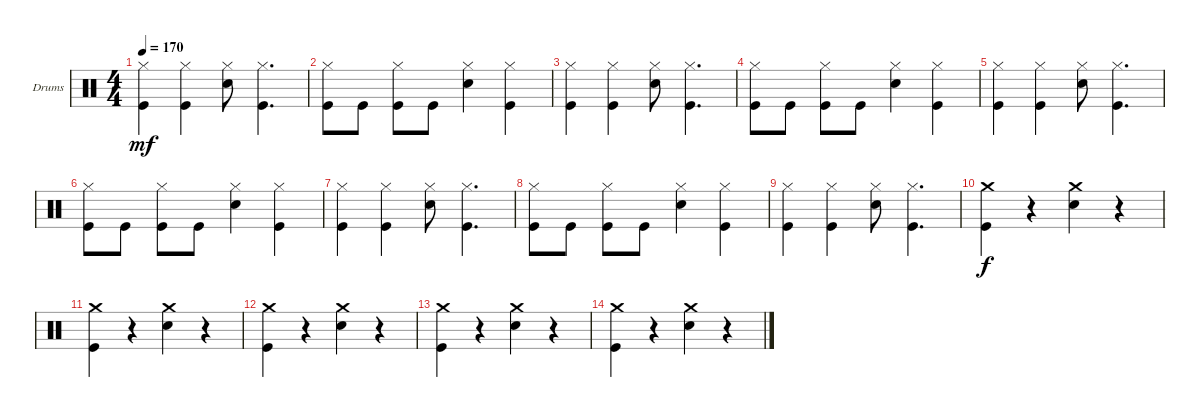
\defaultSystemsLayout 4
\bracketExtendMode groupsimilarinstruments
\firstSystemTrackNameOrientation horizontal
\otherSystemsTrackNameOrientation horizontal
\track ("Drumkit" "Drums") {instrument percussion}
\staff {score}
\articulation defaults
\ts (4 4)
\tempo 170
\clef neutral
\scale
0.333333
\ks c
("Kick (hit)" "Hi-Hat (closed)").4{dy mf} ("Kick (hit)" "Hi-Hat (closed)").4 ("Snare (hit) 2" "Hi-Hat (closed)").8 ("Kick (hit)" "Hi-Hat (closed)").4{d} |
\scale
0.333333 ("Kick (hit)" "Hi-Hat (closed)").8 "Kick (hit)".8 ("Kick (hit)" "Hi-Hat (closed)").8 "Kick (hit)".8 ("Snare (hit) 2" "Hi-Hat (closed)").4 ("Kick (hit)" "Hi-Hat (closed)").4 |
\scale
0.333333 ("Kick (hit)" "Hi-Hat (closed)").4 ("Kick (hit)" "Hi-Hat (closed)").4 ("Snare (hit) 2" "Hi-Hat (closed)").8 ("Kick (hit)" "Hi-Hat (closed)").4{d} |
\scale
0.333333 ("Kick (hit)" "Hi-Hat (closed)").8 "Kick (hit)".8 ("Kick (hit)" "Hi-Hat (closed)").8 "Kick (hit)".8 ("Snare (hit) 2" "Hi-Hat (closed)").4 ("Kick (hit)" "Hi-Hat (closed)").4 |
\scale
0.333333 ("Kick (hit)" "Hi-Hat (closed)").4 ("Kick (hit)" "Hi-Hat (closed)").4 ("Snare (hit) 2" "Hi-Hat (closed)").8 ("Kick (hit)" "Hi-Hat (closed)").4{d} |
\scale
0.333333 ("Kick (hit)" "Hi-Hat (closed)").8 "Kick (hit)".8 ("Kick (hit)" "Hi-Hat (closed)").8 "Kick (hit)".8 ("Snare (hit) 2" "Hi-Hat (closed)").4 ("Kick (hit)" "Hi-Hat (closed)").4 |
\scale
0.333333 ("Kick (hit)" "Hi-Hat (closed)").4 ("Kick (hit)" "Hi-Hat (closed)").4 ("Snare (hit) 2" "Hi-Hat (closed)").8 ("Kick (hit)" "Hi-Hat (closed)").4{d} |
\scale
0.333333 ("Kick (hit)" "Hi-Hat (closed)").8 "Kick (hit)".8 ("Kick (hit)" "Hi-Hat (closed)").8 "Kick (hit)".8 ("Snare (hit) 2" "Hi-Hat (closed)").4 ("Kick (hit)" "Hi-Hat (closed)").4 |
\scale
0.333333 ("Kick (hit)" "Hi-Hat (closed)").4 ("Kick (hit)" "Hi-Hat (closed)").4 ("Snare (hit) 2" "Hi-Hat (closed)").8 ("Kick (hit)" "Hi-Hat (closed)").4{d} |
\scale
0.333333 ("Crash medium (hit)" "Kick (hit)").4{dy f} r.4 ("Crash medium (hit)" "Snare (hit) 2").4 r.4 |
\scale
0.333333 ("Crash medium (hit)" "Kick (hit)").4 r.4 ("Crash medium (hit)" "Snare (hit) 2").4 r.4 |
\scale
0.333333 ("Crash medium (hit)" "Kick (hit)").4 r.4 ("Crash medium (hit)" "Snare (hit) 2").4 r.4 |
\scale
0.333333 ("Crash medium (hit)" "Kick (hit)").4 r.4 ("Crash medium (hit)" "Snare (hit) 2").4 r.4 |
\scale
0.333333 ("Crash medium (hit)" "Kick (hit)").4 r.4 ("Crash medium (hit)" "Snare (hit) 2").4 r.4 |
\scale
0.333333 |
\scale
0.333333
